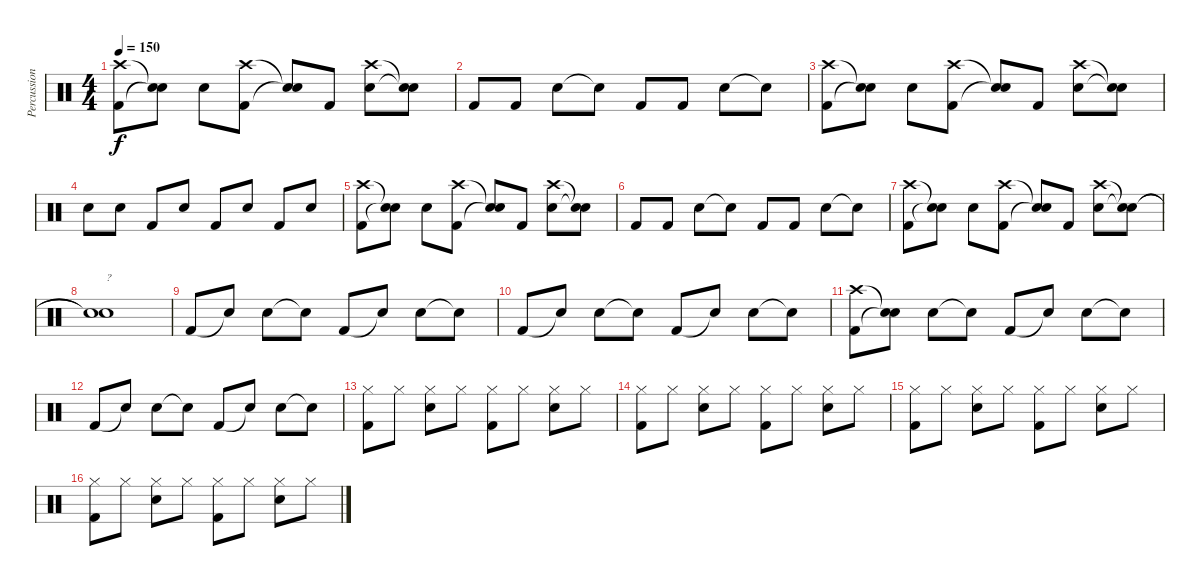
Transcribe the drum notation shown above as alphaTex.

\track ("Percussion" "Percussion") {instrument percussion}
\staff {score}
\articulation defaults
\ts (4 4)
\tempo 150
\clef neutral
\ks c
("Kick (hit) 2" "Crash high (hit)").8{dy f} ("Snare (hit)"{t} "Snare (hit)"{t}).8 "Snare (hit) 2".8 ("Kick (hit) 2" "Crash high (hit)").8 ("Snare (hit)"{t} "Snare (hit)"{t}).8 "Kick (hit) 2".8 ("Snare (hit) 2" "Crash high (hit)").8 ("Snare (hit)"{t} "Snare (hit)"{t}).8 |
"Kick (hit) 2".8 "Kick (hit) 2".8 "Snare (hit) 2".8 "Snare (hit)"{t}.8 "Kick (hit) 2".8 "Kick (hit) 2".8 "Snare (hit) 2".8 "Snare (hit)"{t}.8 |
("Kick (hit) 2" "Crash high (hit)").8 ("Snare (hit)"{t} "Snare (hit)"{t}).8 "Snare (hit) 2".8 ("Kick (hit) 2" "Crash high (hit)").8 ("Snare (hit)"{t} "Snare (hit)"{t}).8 "Kick (hit) 2".8 ("Snare (hit) 2" "Crash high (hit)").8 ("Snare (hit)"{t} "Snare (hit)"{t}).8 |
"Snare (hit) 2".8 "Snare (hit) 2".8 "Kick (hit) 2".8 "Snare (hit) 2".8 "Kick (hit) 2".8 "Snare (hit) 2".8 "Kick (hit) 2".8 "Snare (hit) 2".8 |
("Kick (hit) 2" "Crash high (hit)").8 ("Snare (hit)"{t} "Snare (hit)"{t}).8 "Snare (hit) 2".8 ("Kick (hit) 2" "Crash high (hit)").8 ("Snare (hit)"{t} "Snare (hit)"{t}).8 "Kick (hit) 2".8 ("Snare (hit) 2" "Crash high (hit)").8 ("Snare (hit)"{t} "Snare (hit)"{t}).8 |
"Kick (hit) 2".8 "Kick (hit) 2".8 "Snare (hit) 2".8 "Snare (hit)"{t}.8 "Kick (hit) 2".8 "Kick (hit) 2".8 "Snare (hit) 2".8 "Snare (hit)"{t}.8 |
("Kick (hit) 2" "Crash high (hit)").8 ("Snare (hit)"{t} "Snare (hit)"{t}).8 "Snare (hit) 2".8 ("Kick (hit) 2" "Crash high (hit)").8 ("Snare (hit)"{t} "Snare (hit)"{t}).8 "Kick (hit) 2".8 ("Snare (hit) 2" "Crash high (hit)").8 ("Snare (hit)"{t} "Snare (hit)"{t}).8 |
("Snare (hit)"{t} "Snare (hit)"{t}).1{txt "?"} |
"Kick (hit) 2".8 "Snare (hit)"{t}.8 "Snare (hit) 2".8 "Snare (hit)"{t}.8 "Kick (hit) 2".8 "Snare (hit)"{t}.8 "Snare (hit) 2".8 "Snare (hit)"{t}.8 |
"Kick (hit) 2".8 "Snare (hit)"{t}.8 "Snare (hit) 2".8 "Snare (hit)"{t}.8 "Kick (hit) 2".8 "Snare (hit)"{t}.8 "Snare (hit) 2".8 "Snare (hit)"{t}.8 |
("Kick (hit) 2" "Crash high (hit)").8 ("Snare (hit)"{t} "Snare (hit)"{t}).8 "Snare (hit) 2".8 "Snare (hit)"{t}.8 "Kick (hit) 2".8 "Snare (hit)"{t}.8 "Snare (hit) 2".8 "Snare (hit)"{t}.8 |
"Kick (hit) 2".8 "Snare (hit)"{t}.8 "Snare (hit) 2".8 "Snare (hit)"{t}.8 "Kick (hit) 2".8 "Snare (hit)"{t}.8 "Snare (hit) 2".8 "Snare (hit)"{t}.8 |
("Kick (hit) 2" "Hi-Hat (closed)").8 "Hi-Hat (closed)".8 ("Snare (hit) 2" "Hi-Hat (closed)").8 "Hi-Hat (closed)".8 ("Kick (hit) 2" "Hi-Hat (closed)").8 "Hi-Hat (closed)".8 ("Snare (hit) 2" "Hi-Hat (closed)").8 "Hi-Hat (closed)".8 |
("Kick (hit) 2" "Hi-Hat (closed)").8 "Hi-Hat (closed)".8 ("Snare (hit) 2" "Hi-Hat (closed)").8 "Hi-Hat (closed)".8 ("Kick (hit) 2" "Hi-Hat (closed)").8 "Hi-Hat (closed)".8 ("Snare (hit) 2" "Hi-Hat (closed)").8 "Hi-Hat (closed)".8 |
("Kick (hit) 2" "Hi-Hat (closed)").8 "Hi-Hat (closed)".8 ("Snare (hit) 2" "Hi-Hat (closed)").8 "Hi-Hat (closed)".8 ("Kick (hit) 2" "Hi-Hat (closed)").8 "Hi-Hat (closed)".8 ("Snare (hit) 2" "Hi-Hat (closed)").8 "Hi-Hat (closed)".8 |
("Kick (hit) 2" "Hi-Hat (closed)").8 "Hi-Hat (closed)".8 ("Snare (hit) 2" "Hi-Hat (closed)").8 "Hi-Hat (closed)".8 ("Kick (hit) 2" "Hi-Hat (closed)").8 "Hi-Hat (closed)".8 ("Snare (hit) 2" "Hi-Hat (closed)").8 "Hi-Hat (closed)".8
